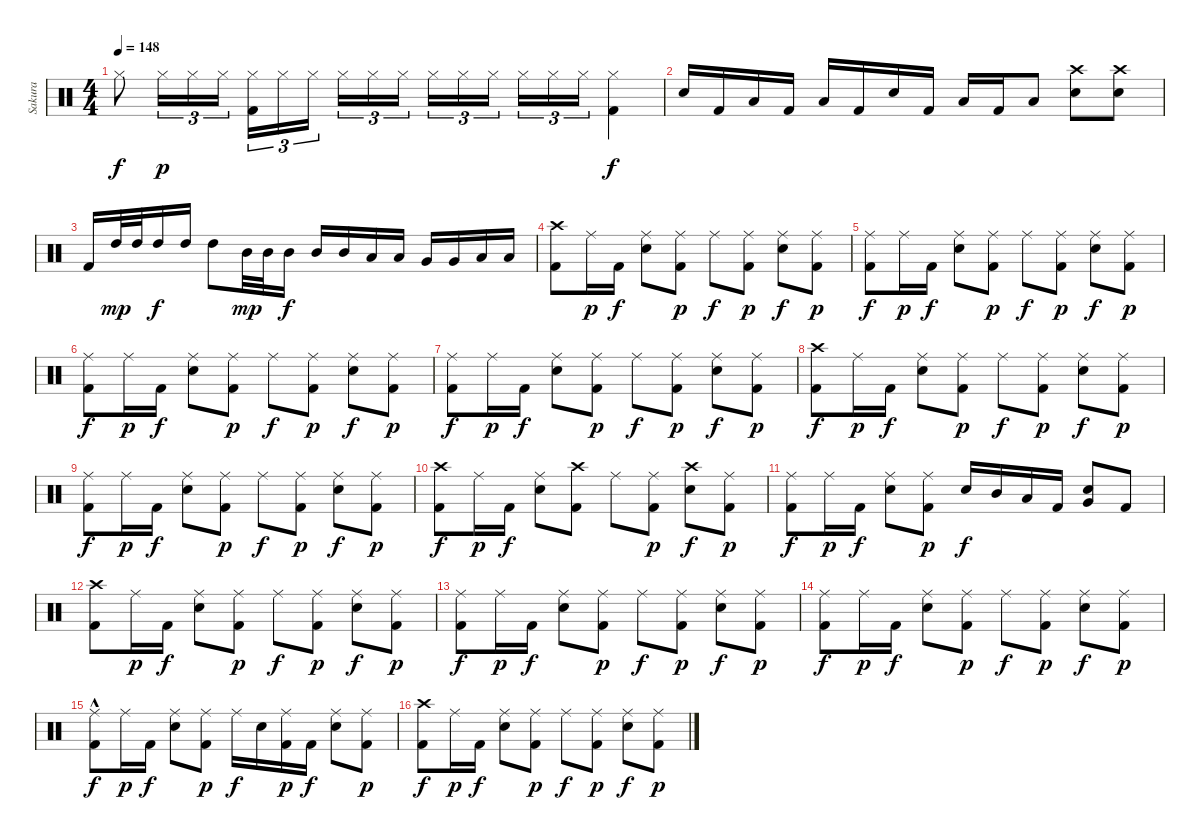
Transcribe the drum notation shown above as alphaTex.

\track ("Sakura" "Sakura") {instrument percussion}
\staff {score}
\articulation defaults
\ts (4 4)
\tempo 148
\clef neutral
\ks c "Hi-Hat (closed)".8{dy f} "Hi-Hat (closed)".16{tu (3 2) dy p} "Hi-Hat (closed)".16{tu (3 2)} "Hi-Hat (closed)".16{tu (3 2)}
("Hi-Hat (closed)" "Kick (hit) 2").16{tu (3 2)} "Hi-Hat (closed)".16{tu (3 2)} "Hi-Hat (closed)".16{tu (3 2)} "Hi-Hat (closed)".16{tu (3 2)} "Hi-Hat (closed)".16{tu (3 2)} "Hi-Hat (closed)".16{tu (3 2)} "Hi-Hat (closed)".16{tu (3 2)} "Hi-Hat (closed)".16{tu (3 2)} "Hi-Hat (closed)".16{tu (3 2)} "Hi-Hat (closed)".16{tu (3 2)} "Hi-Hat (closed)".16{tu (3 2)} "Hi-Hat (closed)".16{tu (3 2)} ("Hi-Hat (closed)" "Kick (hit) 2").4{dy f} |
"Electric Snare (hit)".16 "Kick (hit) 2".16 "Low Floor Tom (hit)".16 "Kick (hit) 2".16 "Low Floor Tom (hit)".16 "Kick (hit) 2".16 "Electric Snare (hit)".16 "Kick (hit) 2".16 "Low Floor Tom (hit)".16 "Kick (hit) 2".16 "Low Floor Tom (hit)".8 ("Crash high (hit)" "Electric Snare (hit)").8 ("Crash high (hit)" "Electric Snare (hit)").8 |
"Kick (hit) 2".16 "High Tom (hit)".32{dy mp} "High Tom (hit)".32 "High Tom (hit)".16{dy f} "High Tom (hit)".16 "High Tom (hit)".8 "Mid Tom (hit)".32{dy mp} "Mid Tom (hit)".32 "Mid Tom (hit)".16{dy f} "Mid Tom (hit)".16 "Mid Tom (hit)".16 "Low Tom (hit)".16 "Low Tom (hit)".16 "Very Low Tom (hit)".16 "Very Low Tom (hit)".16 "Low Floor Tom (hit)".16 "Low Floor Tom (hit)".16 |
("Crash high (hit)" "Kick (hit) 2").8 "Ride (middle)".16{dy p} "Kick (hit) 2".16{dy f} ("Ride (middle)" "Electric Snare (hit)").8 ("Ride (middle)" "Kick (hit) 2").8{dy p} "Ride (middle)".8{dy f} ("Ride (middle)" "Kick (hit) 2").8{dy p} ("Ride (middle)" "Electric Snare (hit)").8{dy f} ("Ride (middle)" "Kick (hit) 2").8{dy p} |
("Ride (middle)" "Kick (hit) 2").8{dy f} "Ride (middle)".16{dy p} "Kick (hit) 2".16{dy f} ("Ride (middle)" "Electric Snare (hit)").8 ("Ride (middle)" "Kick (hit) 2").8{dy p} "Ride (middle)".8{dy f} ("Ride (middle)" "Kick (hit) 2").8{dy p} ("Ride (middle)" "Electric Snare (hit)").8{dy f} ("Ride (middle)" "Kick (hit) 2").8{dy p} |
("Ride (middle)" "Kick (hit) 2").8{dy f} "Ride (middle)".16{dy p} "Kick (hit) 2".16{dy f} ("Ride (middle)" "Electric Snare (hit)").8 ("Ride (middle)" "Kick (hit) 2").8{dy p} "Ride (middle)".8{dy f} ("Ride (middle)" "Kick (hit) 2").8{dy p} ("Ride (middle)" "Electric Snare (hit)").8{dy f} ("Ride (middle)" "Kick (hit) 2").8{dy p} |
("Ride (middle)" "Kick (hit) 2").8{dy f} "Ride (middle)".16{dy p} "Kick (hit) 2".16{dy f} ("Ride (middle)" "Electric Snare (hit)").8 ("Ride (middle)" "Kick (hit) 2").8{dy p} "Ride (middle)".8{dy f} ("Ride (middle)" "Kick (hit) 2").8{dy p} ("Ride (middle)" "Electric Snare (hit)").8{dy f} ("Ride (middle)" "Kick (hit) 2").8{dy p} |
("Crash high (hit)" "Kick (hit) 2").8{dy f} "Ride (middle)".16{dy p} "Kick (hit) 2".16{dy f} ("Ride (middle)" "Electric Snare (hit)").8 ("Ride (middle)" "Kick (hit) 2").8{dy p} "Ride (middle)".8{dy f} ("Ride (middle)" "Kick (hit) 2").8{dy p} ("Ride (middle)" "Electric Snare (hit)").8{dy f} ("Ride (middle)" "Kick (hit) 2").8{dy p} |
("Ride (middle)" "Kick (hit) 2").8{dy f} "Ride (middle)".16{dy p} "Kick (hit) 2".16{dy f} ("Ride (middle)" "Electric Snare (hit)").8 ("Ride (middle)" "Kick (hit) 2").8{dy p} "Ride (middle)".8{dy f} ("Ride (middle)" "Kick (hit) 2").8{dy p} ("Ride (middle)" "Electric Snare (hit)").8{dy f} ("Ride (middle)" "Kick (hit) 2").8{dy p} |
("Crash high (hit)" "Kick (hit) 2").8{dy f} "Ride (middle)".16{dy p} "Kick (hit) 2".16{dy f} ("Ride (middle)" "Electric Snare (hit)").8 ("Crash high (hit)" "Kick (hit) 2").8 "Ride (middle)".8 ("Ride (middle)" "Kick (hit) 2").8{dy p} ("Crash high (hit)" "Electric Snare (hit)").8{dy f} ("Ride (middle)" "Kick (hit) 2").8{dy p} |
("Ride (middle)" "Kick (hit) 2").8{dy f} "Ride (middle)".16{dy p} "Kick (hit) 2".16{dy f} ("Ride (middle)" "Electric Snare (hit)").8 ("Ride (middle)" "Kick (hit) 2").8{dy p} "Electric Snare (hit)".16{dy f} "Mid Tom (hit)".16 "Low Tom (hit)".16 "Kick (hit) 2".16 ("Electric Snare (hit)" "Very Low Tom (hit)").8 "Kick (hit) 2".8 |
("Crash high (hit)" "Kick (hit) 2").8 "Ride (middle)".16{dy p} "Kick (hit) 2".16{dy f} ("Ride (middle)" "Electric Snare (hit)").8 ("Ride (middle)" "Kick (hit) 2").8{dy p} "Ride (middle)".8{dy f} ("Ride (middle)" "Kick (hit) 2").8{dy p} ("Ride (middle)" "Electric Snare (hit)").8{dy f} ("Ride (middle)" "Kick (hit) 2").8{dy p} |
("Ride (middle)" "Kick (hit) 2").8{dy f} "Ride (middle)".16{dy p} "Kick (hit) 2".16{dy f} ("Ride (middle)" "Electric Snare (hit)").8 ("Ride (middle)" "Kick (hit) 2").8{dy p} "Ride (middle)".8{dy f} ("Ride (middle)" "Kick (hit) 2").8{dy p} ("Ride (middle)" "Electric Snare (hit)").8{dy f} ("Ride (middle)" "Kick (hit) 2").8{dy p} |
("Ride (middle)" "Kick (hit) 2").8{dy f} "Ride (middle)".16{dy p} "Kick (hit) 2".16{dy f} ("Ride (middle)" "Electric Snare (hit)").8 ("Ride (middle)" "Kick (hit) 2").8{dy p} "Ride (middle)".8{dy f} ("Ride (middle)" "Kick (hit) 2").8{dy p} ("Ride (middle)" "Electric Snare (hit)").8{dy f} ("Ride (middle)" "Kick (hit) 2").8{dy p} |
("Ride (middle)"{hac} "Kick (hit) 2").8{dy f} "Ride (middle)".16{dy p} "Kick (hit) 2".16{dy f} ("Ride (middle)" "Electric Snare (hit)").8 ("Ride (middle)" "Kick (hit) 2").8{dy p} "Ride (middle)".16{dy f} "Electric Snare (hit)".16 ("Ride (middle)" "Kick (hit) 2").16{dy p} "Kick (hit) 2".16{dy f} ("Ride (middle)" "Electric Snare (hit)").8 ("Ride (middle)" "Kick (hit) 2").8{dy p} |
("Crash high (hit)" "Kick (hit) 2").8{dy f} "Ride (middle)".16{dy p} "Kick (hit) 2".16{dy f} ("Ride (middle)" "Electric Snare (hit)").8 ("Ride (middle)" "Kick (hit) 2").8{dy p} "Ride (middle)".8{dy f} ("Ride (middle)" "Kick (hit) 2").8{dy p} ("Ride (middle)" "Electric Snare (hit)").8{dy f} ("Ride (middle)" "Kick (hit) 2").8{dy p}
